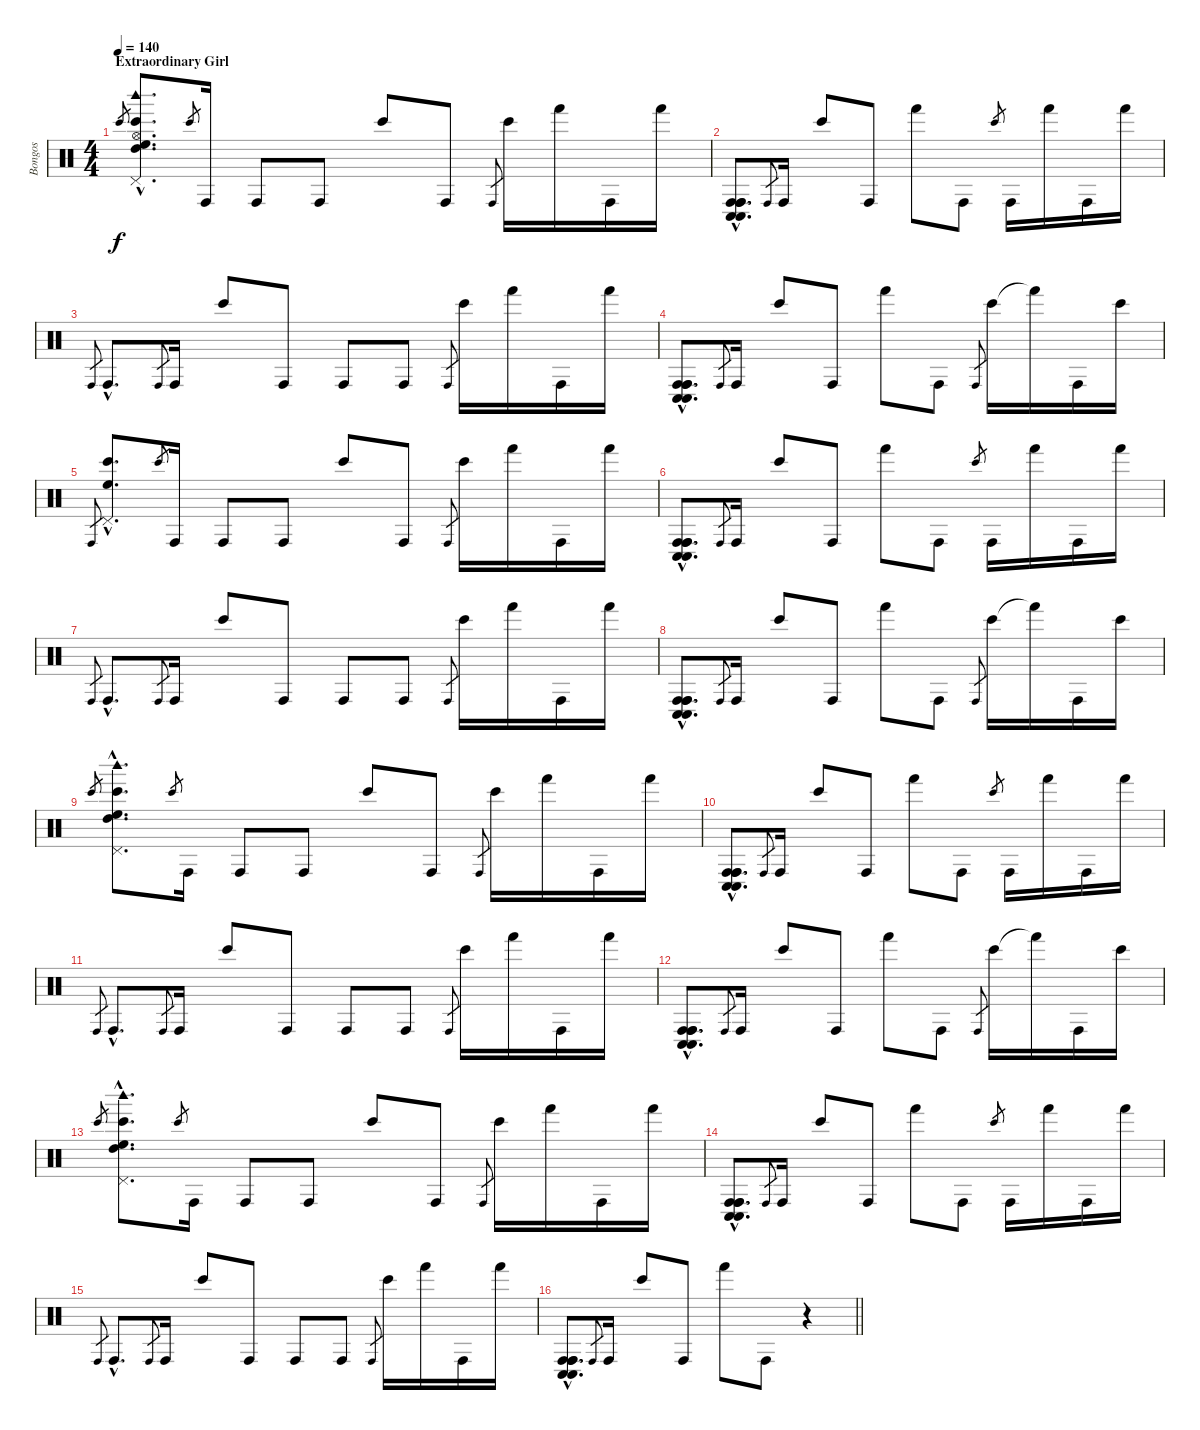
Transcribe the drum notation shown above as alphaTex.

\track ("Bongos" "Bongos") {instrument percussion}
\staff {score}
\articulation defaults
\ts (4 4)
\section ("" "Extraordinary Girl")
\tempo 140
\tempo 120
\tempo 140
\clef neutral
\ks c "Bongo High (hit)".8{gr dy f}
("Bongo High (hit)"{hac} "High Floor Tom (hit)"{hac} "Pedal Hi-Hat (hit)"{hac} "High Tom (hit)"{hac} "Woodblock high (hit)"{hac} "Hi-Hat (open)"{hac}).8{d} "Bongo High (hit)".8{gr} "Conga high (hit)".16 "Conga high (hit)".8 "Conga high (hit)".8 "Bongo High (hit)".8 "Conga high (hit)".8 "Conga high (hit)".8{gr} "Bongo High (hit)".16 "Hand (hit)".16 "Conga high (hit)".16 "Hand (hit)".16 |
("Conga low (hit)"{hac} "Conga low (hit)"{hac} "Conga high (hit)"{hac} "Conga high (hit)"{hac} "Conga high (hit)"{hac}).8{d} "Conga high (hit)".8{gr} "Conga high (hit)".16 "Bongo High (hit)".8 "Conga high (hit)".8 "Hand (hit)".8 "Conga high (hit)".8 "Bongo High (hit)".8{gr} "Conga high (hit)".16 "Hand (hit)".16 "Conga high (hit)".16 "Hand (hit)".16 |
"Conga high (hit)".8{gr} "Conga high (hit)"{hac}.8{d} "Conga high (hit)".8{gr} "Conga high (hit)".16 "Bongo High (hit)".8 "Conga high (hit)".8 "Conga high (hit)".8 "Conga high (hit)".8 "Conga high (hit)".8{gr} "Bongo High (hit)".16 "Hand (hit)".16 "Conga high (hit)".16 "Hand (hit)".16 |
("Conga low (hit)"{hac} "Conga low (hit)"{hac} "Conga high (hit)"{hac} "Conga high (hit)"{hac} "Conga high (hit)"{hac}).8{d} "Conga high (hit)".8{gr} "Conga high (hit)".16 "Bongo High (hit)".8 "Conga high (hit)".8 "Hand (hit)".8 "Conga high (hit)".8 "Conga high (hit)".8{gr} "Bongo High (hit)".16 "Hand (hit)"{t}.16 "Conga high (hit)".16 "Bongo High (hit)".16 |
"Conga high (hit)".8{gr} ("Bongo High (hit)"{hac} "High Floor Tom (hit)"{hac} "Pedal Hi-Hat (hit)"{hac}).8{d} "Bongo High (hit)".8{gr} "Conga high (hit)".16 "Conga high (hit)".8 "Conga high (hit)".8 "Bongo High (hit)".8 "Conga high (hit)".8 "Conga high (hit)".8{gr} "Bongo High (hit)".16 "Hand (hit)".16 "Conga high (hit)".16 "Hand (hit)".16 |
("Conga low (hit)"{hac} "Conga low (hit)"{hac} "Conga high (hit)"{hac} "Conga high (hit)"{hac} "Conga high (hit)"{hac}).8{d} "Conga high (hit)".8{gr} "Conga high (hit)".16 "Bongo High (hit)".8 "Conga high (hit)".8 "Hand (hit)".8 "Conga high (hit)".8 "Bongo High (hit)".8{gr} "Conga high (hit)".16 "Hand (hit)".16 "Conga high (hit)".16 "Hand (hit)".16 |
"Conga high (hit)".8{gr} "Conga high (hit)"{hac}.8{d} "Conga high (hit)".8{gr} "Conga high (hit)".16 "Bongo High (hit)".8 "Conga high (hit)".8 "Conga high (hit)".8 "Conga high (hit)".8 "Conga high (hit)".8{gr} "Bongo High (hit)".16 "Hand (hit)".16 "Conga high (hit)".16 "Hand (hit)".16 |
("Conga low (hit)"{hac} "Conga low (hit)"{hac} "Conga high (hit)"{hac} "Conga high (hit)"{hac} "Conga high (hit)"{hac}).8{d} "Conga high (hit)".8{gr} "Conga high (hit)".16 "Bongo High (hit)".8 "Conga high (hit)".8 "Hand (hit)".8 "Conga high (hit)".8 "Conga high (hit)".8{gr} "Bongo High (hit)".16 "Hand (hit)"{t}.16 "Conga high (hit)".16 "Bongo High (hit)".16 |
"Bongo High (hit)".8{gr} ("Bongo High (hit)"{hac} "High Floor Tom (hit)"{hac} "Pedal Hi-Hat (hit)"{hac} "High Tom (hit)"{hac} "Woodblock high (hit)"{hac}).8{d} "Bongo High (hit)".8{gr} "Conga high (hit)".16 "Conga high (hit)".8 "Conga high (hit)".8 "Bongo High (hit)".8 "Conga high (hit)".8 "Conga high (hit)".8{gr} "Bongo High (hit)".16 "Hand (hit)".16 "Conga high (hit)".16 "Hand (hit)".16 |
("Conga low (hit)"{hac} "Conga low (hit)"{hac} "Conga high (hit)"{hac} "Conga high (hit)"{hac} "Conga high (hit)"{hac}).8{d} "Conga high (hit)".8{gr} "Conga high (hit)".16 "Bongo High (hit)".8 "Conga high (hit)".8 "Hand (hit)".8 "Conga high (hit)".8 "Bongo High (hit)".8{gr} "Conga high (hit)".16 "Hand (hit)".16 "Conga high (hit)".16 "Hand (hit)".16 |
"Conga high (hit)".8{gr} "Conga high (hit)"{hac}.8{d} "Conga high (hit)".8{gr} "Conga high (hit)".16 "Bongo High (hit)".8 "Conga high (hit)".8 "Conga high (hit)".8 "Conga high (hit)".8 "Conga high (hit)".8{gr} "Bongo High (hit)".16 "Hand (hit)".16 "Conga high (hit)".16 "Hand (hit)".16 |
("Conga low (hit)"{hac} "Conga low (hit)"{hac} "Conga high (hit)"{hac} "Conga high (hit)"{hac} "Conga high (hit)"{hac}).8{d} "Conga high (hit)".8{gr} "Conga high (hit)".16 "Bongo High (hit)".8 "Conga high (hit)".8 "Hand (hit)".8 "Conga high (hit)".8 "Conga high (hit)".8{gr} "Bongo High (hit)".16 "Hand (hit)"{t}.16 "Conga high (hit)".16 "Bongo High (hit)".16 |
"Bongo High (hit)".8{gr} ("Bongo High (hit)"{hac} "High Floor Tom (hit)"{hac} "Pedal Hi-Hat (hit)"{hac} "High Tom (hit)"{hac} "Woodblock high (hit)"{hac}).8{d} "Bongo High (hit)".8{gr} "Conga high (hit)".16 "Conga high (hit)".8 "Conga high (hit)".8 "Bongo High (hit)".8 "Conga high (hit)".8 "Conga high (hit)".8{gr} "Bongo High (hit)".16 "Hand (hit)".16 "Conga high (hit)".16 "Hand (hit)".16 |
("Conga low (hit)"{hac} "Conga low (hit)"{hac} "Conga high (hit)"{hac} "Conga high (hit)"{hac} "Conga high (hit)"{hac}).8{d} "Conga high (hit)".8{gr} "Conga high (hit)".16 "Bongo High (hit)".8 "Conga high (hit)".8 "Hand (hit)".8 "Conga high (hit)".8 "Bongo High (hit)".8{gr} "Conga high (hit)".16 "Hand (hit)".16 "Conga high (hit)".16 "Hand (hit)".16 |
"Conga high (hit)".8{gr} "Conga high (hit)"{hac}.8{d} "Conga high (hit)".8{gr} "Conga high (hit)".16 "Bongo High (hit)".8 "Conga high (hit)".8 "Conga high (hit)".8 "Conga high (hit)".8 "Conga high (hit)".8{gr} "Bongo High (hit)".16 "Hand (hit)".16 "Conga high (hit)".16 "Hand (hit)".16 |
\barLineRight lightlight
("Conga low (hit)"{hac} "Conga low (hit)"{hac} "Conga high (hit)"{hac} "Conga high (hit)"{hac} "Conga high (hit)"{hac}).8{d} "Conga high (hit)".8{gr} "Conga high (hit)".16 "Bongo High (hit)".8 "Conga high (hit)".8 "Hand (hit)".8 "Conga high (hit)".8 r.4
